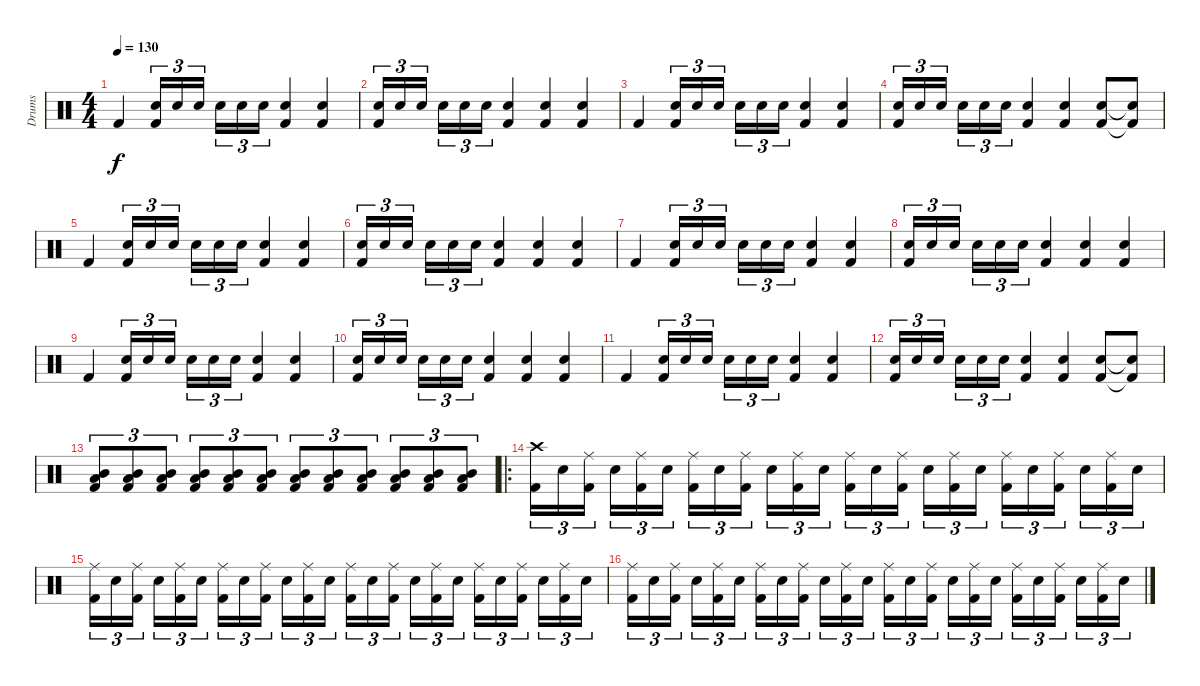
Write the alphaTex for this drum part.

\track ("Drums" "Drums") {instrument percussion}
\staff {score}
\articulation defaults
\ts (4 4)
\tempo 130
\clef neutral
\ks c "Kick (hit) 2".4{dy f}
("Snare (hit) 2" "Kick (hit) 2").16{tu (3 2)} "Snare (hit) 2".16{tu (3 2)} "Snare (hit) 2".16{tu (3 2)} "Snare (hit) 2".16{tu (3 2)} "Snare (hit) 2".16{tu (3 2)} "Snare (hit) 2".16{tu (3 2)} ("Snare (hit) 2" "Kick (hit) 2").4 ("Snare (hit) 2" "Kick (hit) 2").4 |
("Snare (hit) 2" "Kick (hit) 2").16{tu (3 2)} "Snare (hit) 2".16{tu (3 2)} "Snare (hit) 2".16{tu (3 2)} "Snare (hit) 2".16{tu (3 2)} "Snare (hit) 2".16{tu (3 2)} "Snare (hit) 2".16{tu (3 2)} ("Snare (hit) 2" "Kick (hit) 2").4 ("Snare (hit) 2" "Kick (hit) 2").4 ("Snare (hit) 2" "Kick (hit) 2").4 |
"Kick (hit) 2".4 ("Snare (hit) 2" "Kick (hit) 2").16{tu (3 2)} "Snare (hit) 2".16{tu (3 2)} "Snare (hit) 2".16{tu (3 2)} "Snare (hit) 2".16{tu (3 2)} "Snare (hit) 2".16{tu (3 2)} "Snare (hit) 2".16{tu (3 2)} ("Snare (hit) 2" "Kick (hit) 2").4 ("Snare (hit) 2" "Kick (hit) 2").4 |
("Snare (hit) 2" "Kick (hit) 2").16{tu (3 2)} "Snare (hit) 2".16{tu (3 2)} "Snare (hit) 2".16{tu (3 2)} "Snare (hit) 2".16{tu (3 2)} "Snare (hit) 2".16{tu (3 2)} "Snare (hit) 2".16{tu (3 2)} ("Snare (hit) 2" "Kick (hit) 2").4 ("Snare (hit) 2" "Kick (hit) 2").4 ("Snare (hit) 2" "Kick (hit) 2").8 ("Snare (hit) 2"{t} "Kick (hit) 2"{t}).8 |
"Kick (hit) 2".4 ("Snare (hit) 2" "Kick (hit) 2").16{tu (3 2)} "Snare (hit) 2".16{tu (3 2)} "Snare (hit) 2".16{tu (3 2)} "Snare (hit) 2".16{tu (3 2)} "Snare (hit) 2".16{tu (3 2)} "Snare (hit) 2".16{tu (3 2)} ("Snare (hit) 2" "Kick (hit) 2").4 ("Snare (hit) 2" "Kick (hit) 2").4 |
("Snare (hit) 2" "Kick (hit) 2").16{tu (3 2)} "Snare (hit) 2".16{tu (3 2)} "Snare (hit) 2".16{tu (3 2)} "Snare (hit) 2".16{tu (3 2)} "Snare (hit) 2".16{tu (3 2)} "Snare (hit) 2".16{tu (3 2)} ("Snare (hit) 2" "Kick (hit) 2").4 ("Snare (hit) 2" "Kick (hit) 2").4 ("Snare (hit) 2" "Kick (hit) 2").4 |
"Kick (hit) 2".4 ("Snare (hit) 2" "Kick (hit) 2").16{tu (3 2)} "Snare (hit) 2".16{tu (3 2)} "Snare (hit) 2".16{tu (3 2)} "Snare (hit) 2".16{tu (3 2)} "Snare (hit) 2".16{tu (3 2)} "Snare (hit) 2".16{tu (3 2)} ("Snare (hit) 2" "Kick (hit) 2").4 ("Snare (hit) 2" "Kick (hit) 2").4 |
("Snare (hit) 2" "Kick (hit) 2").16{tu (3 2)} "Snare (hit) 2".16{tu (3 2)} "Snare (hit) 2".16{tu (3 2)} "Snare (hit) 2".16{tu (3 2)} "Snare (hit) 2".16{tu (3 2)} "Snare (hit) 2".16{tu (3 2)} ("Snare (hit) 2" "Kick (hit) 2").4 ("Snare (hit) 2" "Kick (hit) 2").4 ("Snare (hit) 2" "Kick (hit) 2").4 |
"Kick (hit) 2".4 ("Snare (hit) 2" "Kick (hit) 2").16{tu (3 2)} "Snare (hit) 2".16{tu (3 2)} "Snare (hit) 2".16{tu (3 2)} "Snare (hit) 2".16{tu (3 2)} "Snare (hit) 2".16{tu (3 2)} "Snare (hit) 2".16{tu (3 2)} ("Snare (hit) 2" "Kick (hit) 2").4 ("Snare (hit) 2" "Kick (hit) 2").4 |
("Snare (hit) 2" "Kick (hit) 2").16{tu (3 2)} "Snare (hit) 2".16{tu (3 2)} "Snare (hit) 2".16{tu (3 2)} "Snare (hit) 2".16{tu (3 2)} "Snare (hit) 2".16{tu (3 2)} "Snare (hit) 2".16{tu (3 2)} ("Snare (hit) 2" "Kick (hit) 2").4 ("Snare (hit) 2" "Kick (hit) 2").4 ("Snare (hit) 2" "Kick (hit) 2").4 |
"Kick (hit) 2".4 ("Snare (hit) 2" "Kick (hit) 2").16{tu (3 2)} "Snare (hit) 2".16{tu (3 2)} "Snare (hit) 2".16{tu (3 2)} "Snare (hit) 2".16{tu (3 2)} "Snare (hit) 2".16{tu (3 2)} "Snare (hit) 2".16{tu (3 2)} ("Snare (hit) 2" "Kick (hit) 2").4 ("Snare (hit) 2" "Kick (hit) 2").4 |
("Snare (hit) 2" "Kick (hit) 2").16{tu (3 2)} "Snare (hit) 2".16{tu (3 2)} "Snare (hit) 2".16{tu (3 2)} "Snare (hit) 2".16{tu (3 2)} "Snare (hit) 2".16{tu (3 2)} "Snare (hit) 2".16{tu (3 2)} ("Snare (hit) 2" "Kick (hit) 2").4 ("Snare (hit) 2" "Kick (hit) 2").4 ("Snare (hit) 2" "Kick (hit) 2").8 ("Snare (hit) 2"{t} "Kick (hit) 2"{t}).8 |
("Mid Tom (hit)" "Low Tom (hit)" "Kick (hit) 2").8{tu (3 2)} ("Mid Tom (hit)" "Low Tom (hit)" "Kick (hit) 2").8{tu (3 2)} ("Mid Tom (hit)" "Low Tom (hit)" "Kick (hit) 2").8{tu (3 2)} ("Mid Tom (hit)" "Low Tom (hit)" "Kick (hit) 2").8{tu (3 2)} ("Mid Tom (hit)" "Low Tom (hit)" "Kick (hit) 2").8{tu (3 2)} ("Mid Tom (hit)" "Low Tom (hit)" "Kick (hit) 2").8{tu (3 2)} ("Mid Tom (hit)" "Low Tom (hit)" "Kick (hit) 2").8{tu (3 2)} ("Mid Tom (hit)" "Low Tom (hit)" "Kick (hit) 2").8{tu (3 2)} ("Mid Tom (hit)" "Low Tom (hit)" "Kick (hit) 2").8{tu (3 2)} ("Mid Tom (hit)" "Low Tom (hit)" "Kick (hit) 2").8{tu (3 2)} ("Mid Tom (hit)" "Low Tom (hit)" "Kick (hit) 2").8{tu (3 2)} ("Mid Tom (hit)" "Low Tom (hit)" "Kick (hit) 2").8{tu (3 2)} |
\ro
("Crash high (hit)" "Kick (hit) 2").16{tu (3 2)} "Electric Snare (hit)".16{tu (3 2)} ("Ride (middle)" "Kick (hit) 2").16{tu (3 2)} "Electric Snare (hit)".16{tu (3 2)} ("Ride (middle)" "Kick (hit) 2").16{tu (3 2)} "Electric Snare (hit)".16{tu (3 2)} ("Ride (middle)" "Kick (hit) 2").16{tu (3 2)} "Electric Snare (hit)".16{tu (3 2)} ("Ride (middle)" "Kick (hit) 2").16{tu (3 2)} "Electric Snare (hit)".16{tu (3 2)} ("Ride (middle)" "Kick (hit) 2").16{tu (3 2)} "Electric Snare (hit)".16{tu (3 2)} ("Ride (middle)" "Kick (hit) 2").16{tu (3 2)} "Electric Snare (hit)".16{tu (3 2)} ("Ride (middle)" "Kick (hit) 2").16{tu (3 2)} "Electric Snare (hit)".16{tu (3 2)} ("Ride (middle)" "Kick (hit) 2").16{tu (3 2)} "Electric Snare (hit)".16{tu (3 2)} ("Ride (middle)" "Kick (hit) 2").16{tu (3 2)} "Electric Snare (hit)".16{tu (3 2)} ("Ride (middle)" "Kick (hit) 2").16{tu (3 2)} "Electric Snare (hit)".16{tu (3 2)} ("Ride (middle)" "Kick (hit) 2").16{tu (3 2)} "Electric Snare (hit)".16{tu (3 2)} |
("Ride (middle)" "Kick (hit) 2").16{tu (3 2)} "Electric Snare (hit)".16{tu (3 2)} ("Ride (middle)" "Kick (hit) 2").16{tu (3 2)} "Electric Snare (hit)".16{tu (3 2)} ("Ride (middle)" "Kick (hit) 2").16{tu (3 2)} "Electric Snare (hit)".16{tu (3 2)} ("Ride (middle)" "Kick (hit) 2").16{tu (3 2)} "Electric Snare (hit)".16{tu (3 2)} ("Ride (middle)" "Kick (hit) 2").16{tu (3 2)} "Electric Snare (hit)".16{tu (3 2)} ("Ride (middle)" "Kick (hit) 2").16{tu (3 2)} "Electric Snare (hit)".16{tu (3 2)} ("Ride (middle)" "Kick (hit) 2").16{tu (3 2)} "Electric Snare (hit)".16{tu (3 2)} ("Ride (middle)" "Kick (hit) 2").16{tu (3 2)} "Electric Snare (hit)".16{tu (3 2)} ("Ride (middle)" "Kick (hit) 2").16{tu (3 2)} "Electric Snare (hit)".16{tu (3 2)} ("Ride (middle)" "Kick (hit) 2").16{tu (3 2)} "Electric Snare (hit)".16{tu (3 2)} ("Ride (middle)" "Kick (hit) 2").16{tu (3 2)} "Electric Snare (hit)".16{tu (3 2)} ("Ride (middle)" "Kick (hit) 2").16{tu (3 2)} "Electric Snare (hit)".16{tu (3 2)} |
("Ride (middle)" "Kick (hit) 2").16{tu (3 2)} "Electric Snare (hit)".16{tu (3 2)} ("Ride (middle)" "Kick (hit) 2").16{tu (3 2)} "Electric Snare (hit)".16{tu (3 2)} ("Ride (middle)" "Kick (hit) 2").16{tu (3 2)} "Electric Snare (hit)".16{tu (3 2)} ("Ride (middle)" "Kick (hit) 2").16{tu (3 2)} "Electric Snare (hit)".16{tu (3 2)} ("Ride (middle)" "Kick (hit) 2").16{tu (3 2)} "Electric Snare (hit)".16{tu (3 2)} ("Ride (middle)" "Kick (hit) 2").16{tu (3 2)} "Electric Snare (hit)".16{tu (3 2)} ("Ride (middle)" "Kick (hit) 2").16{tu (3 2)} "Electric Snare (hit)".16{tu (3 2)} ("Ride (middle)" "Kick (hit) 2").16{tu (3 2)} "Electric Snare (hit)".16{tu (3 2)} ("Ride (middle)" "Kick (hit) 2").16{tu (3 2)} "Electric Snare (hit)".16{tu (3 2)} ("Ride (middle)" "Kick (hit) 2").16{tu (3 2)} "Electric Snare (hit)".16{tu (3 2)} ("Ride (middle)" "Kick (hit) 2").16{tu (3 2)} "Electric Snare (hit)".16{tu (3 2)} ("Ride (middle)" "Kick (hit) 2").16{tu (3 2)} "Electric Snare (hit)".16{tu (3 2)}
